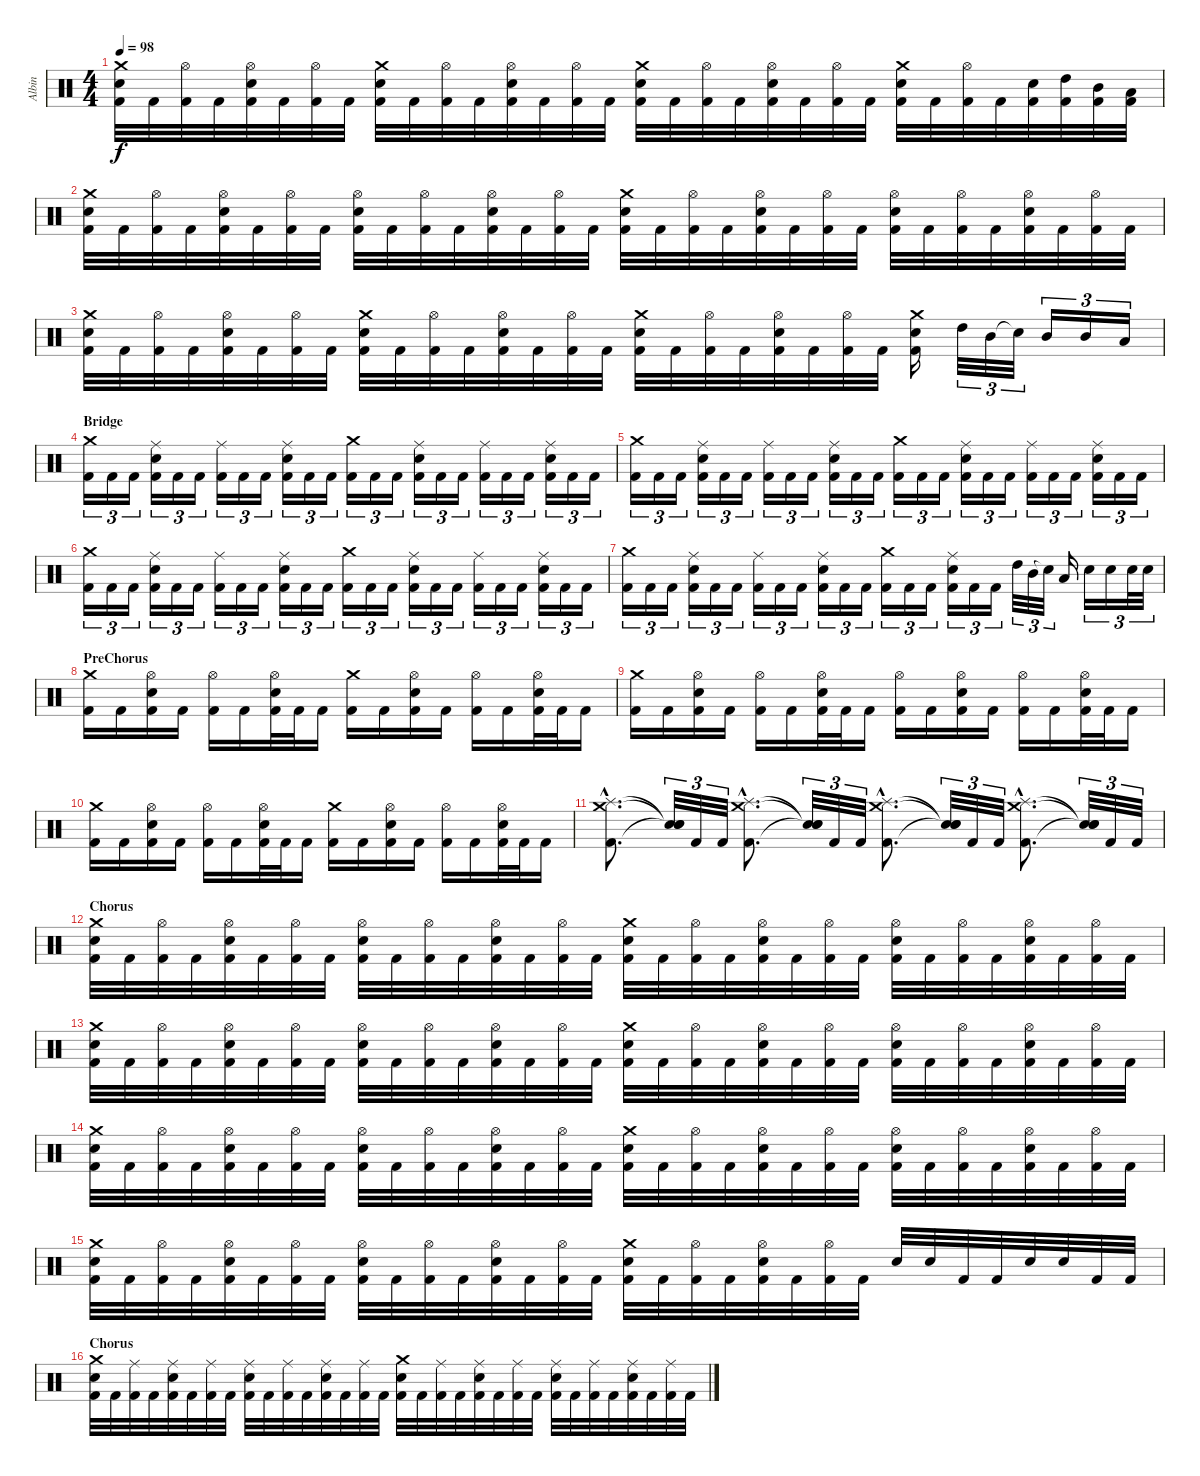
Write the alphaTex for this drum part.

\track ("Albin" "Albin") {instrument percussion}
\staff {score}
\articulation defaults
\ts (4 4)
\tempo 98
\clef neutral
\ks c
("Crash medium (hit)" "Electric Snare (hit)" "Kick (hit) 2").32{dy f} "Kick (hit) 2".32 ("Hi-Hat (open)" "Kick (hit) 2").32 "Kick (hit) 2".32 ("Hi-Hat (open)" "Electric Snare (hit)" "Kick (hit) 2").32 "Kick (hit) 2".32 ("Hi-Hat (open)" "Kick (hit) 2").32 "Kick (hit) 2".32 ("Crash medium (hit)" "Electric Snare (hit)" "Kick (hit) 2").32 "Kick (hit) 2".32 ("Hi-Hat (open)" "Kick (hit) 2").32 "Kick (hit) 2".32 ("Hi-Hat (open)" "Electric Snare (hit)" "Kick (hit) 2").32 "Kick (hit) 2".32 ("Hi-Hat (open)" "Kick (hit) 2").32 "Kick (hit) 2".32 ("Crash medium (hit)" "Electric Snare (hit)" "Kick (hit) 2").32 "Kick (hit) 2".32 ("Hi-Hat (open)" "Kick (hit) 2").32 "Kick (hit) 2".32 ("Hi-Hat (open)" "Electric Snare (hit)" "Kick (hit) 2").32 "Kick (hit) 2".32 ("Hi-Hat (open)" "Kick (hit) 2").32 "Kick (hit) 2".32 ("Crash medium (hit)" "Electric Snare (hit)" "Kick (hit) 2").32 "Kick (hit) 2".32 ("Hi-Hat (open)" "Kick (hit) 2").32 "Kick (hit) 2".32 ("Electric Snare (hit)" "Kick (hit) 2").32 ("High Tom (hit)" "Kick (hit) 2").32 ("Mid Tom (hit)" "Kick (hit) 2").32 ("Low Tom (hit)" "Kick (hit) 2").32 |
("Crash medium (hit)" "Electric Snare (hit)" "Kick (hit) 2").32 "Kick (hit) 2".32 ("Hi-Hat (open)" "Kick (hit) 2").32 "Kick (hit) 2".32 ("Hi-Hat (open)" "Electric Snare (hit)" "Kick (hit) 2").32 "Kick (hit) 2".32 ("Hi-Hat (open)" "Kick (hit) 2").32 "Kick (hit) 2".32 ("Hi-Hat (open)" "Electric Snare (hit)" "Kick (hit) 2").32 "Kick (hit) 2".32 ("Hi-Hat (open)" "Kick (hit) 2").32 "Kick (hit) 2".32 ("Hi-Hat (open)" "Electric Snare (hit)" "Kick (hit) 2").32 "Kick (hit) 2".32 ("Hi-Hat (open)" "Kick (hit) 2").32 "Kick (hit) 2".32 ("Crash medium (hit)" "Electric Snare (hit)" "Kick (hit) 2").32 "Kick (hit) 2".32 ("Hi-Hat (open)" "Kick (hit) 2").32 "Kick (hit) 2".32 ("Hi-Hat (open)" "Electric Snare (hit)" "Kick (hit) 2").32 "Kick (hit) 2".32 ("Hi-Hat (open)" "Kick (hit) 2").32 "Kick (hit) 2".32 ("Hi-Hat (open)" "Electric Snare (hit)" "Kick (hit) 2").32 "Kick (hit) 2".32 ("Hi-Hat (open)" "Kick (hit) 2").32 "Kick (hit) 2".32 ("Hi-Hat (open)" "Electric Snare (hit)" "Kick (hit) 2").32 "Kick (hit) 2".32 ("Hi-Hat (open)" "Kick (hit) 2").32 "Kick (hit) 2".32 |
("Crash medium (hit)" "Electric Snare (hit)" "Kick (hit) 2").32 "Kick (hit) 2".32 ("Hi-Hat (open)" "Kick (hit) 2").32 "Kick (hit) 2".32 ("Hi-Hat (open)" "Electric Snare (hit)" "Kick (hit) 2").32 "Kick (hit) 2".32 ("Hi-Hat (open)" "Kick (hit) 2").32 "Kick (hit) 2".32 ("Crash medium (hit)" "Electric Snare (hit)" "Kick (hit) 2").32 "Kick (hit) 2".32 ("Hi-Hat (open)" "Kick (hit) 2").32 "Kick (hit) 2".32 ("Hi-Hat (open)" "Electric Snare (hit)" "Kick (hit) 2").32 "Kick (hit) 2".32 ("Hi-Hat (open)" "Kick (hit) 2").32 "Kick (hit) 2".32 ("Crash medium (hit)" "Electric Snare (hit)" "Kick (hit) 2").32 "Kick (hit) 2".32 ("Hi-Hat (open)" "Kick (hit) 2").32 "Kick (hit) 2".32 ("Hi-Hat (open)" "Electric Snare (hit)" "Kick (hit) 2").32 "Kick (hit) 2".32 ("Hi-Hat (open)" "Kick (hit) 2").32 "Kick (hit) 2".32 ("Crash medium (hit)" "Electric Snare (hit)" "Kick (hit) 2").16 "High Tom (hit)".32{tu (3 2)} "Mid Tom (hit)".32{tu (3 2)} "Snare (hit)"{t}.32{tu (3 2)} "Mid Tom (hit)".16{tu (3 2)} "Mid Tom (hit)".16{tu (3 2)} "Low Tom (hit)".16{tu (3 2)} |
\section ("" "Bridge")
("Crash medium (hit)" "Kick (hit) 2").16{tu (3 2)} "Kick (hit) 2".16{tu (3 2)} "Kick (hit) 2".16{tu (3 2)} ("Ride (middle)" "Electric Snare (hit)" "Kick (hit) 2").16{tu (3 2)} "Kick (hit) 2".16{tu (3 2)} "Kick (hit) 2".16{tu (3 2)} ("Ride (middle)" "Kick (hit) 2").16{tu (3 2)} "Kick (hit) 2".16{tu (3 2)} "Kick (hit) 2".16{tu (3 2)} ("Ride (middle)" "Electric Snare (hit)" "Kick (hit) 2").16{tu (3 2)} "Kick (hit) 2".16{tu (3 2)} "Kick (hit) 2".16{tu (3 2)} ("Crash medium (hit)" "Kick (hit) 2").16{tu (3 2)} "Kick (hit) 2".16{tu (3 2)} "Kick (hit) 2".16{tu (3 2)} ("Ride (middle)" "Electric Snare (hit)" "Kick (hit) 2").16{tu (3 2)} "Kick (hit) 2".16{tu (3 2)} "Kick (hit) 2".16{tu (3 2)} ("Ride (middle)" "Kick (hit) 2").16{tu (3 2)} "Kick (hit) 2".16{tu (3 2)} "Kick (hit) 2".16{tu (3 2)} ("Ride (middle)" "Electric Snare (hit)" "Kick (hit) 2").16{tu (3 2)} "Kick (hit) 2".16{tu (3 2)} "Kick (hit) 2".16{tu (3 2)} |
("Crash medium (hit)" "Kick (hit) 2").16{tu (3 2)} "Kick (hit) 2".16{tu (3 2)} "Kick (hit) 2".16{tu (3 2)} ("Ride (middle)" "Electric Snare (hit)" "Kick (hit) 2").16{tu (3 2)} "Kick (hit) 2".16{tu (3 2)} "Kick (hit) 2".16{tu (3 2)} ("Ride (middle)" "Kick (hit) 2").16{tu (3 2)} "Kick (hit) 2".16{tu (3 2)} "Kick (hit) 2".16{tu (3 2)} ("Ride (middle)" "Electric Snare (hit)" "Kick (hit) 2").16{tu (3 2)} "Kick (hit) 2".16{tu (3 2)} "Kick (hit) 2".16{tu (3 2)} ("Crash medium (hit)" "Kick (hit) 2").16{tu (3 2)} "Kick (hit) 2".16{tu (3 2)} "Kick (hit) 2".16{tu (3 2)} ("Ride (middle)" "Electric Snare (hit)" "Kick (hit) 2").16{tu (3 2)} "Kick (hit) 2".16{tu (3 2)} "Kick (hit) 2".16{tu (3 2)} ("Ride (middle)" "Kick (hit) 2").16{tu (3 2)} "Kick (hit) 2".16{tu (3 2)} "Kick (hit) 2".16{tu (3 2)} ("Ride (middle)" "Electric Snare (hit)" "Kick (hit) 2").16{tu (3 2)} "Kick (hit) 2".16{tu (3 2)} "Kick (hit) 2".16{tu (3 2)} |
("Crash medium (hit)" "Kick (hit) 2").16{tu (3 2)} "Kick (hit) 2".16{tu (3 2)} "Kick (hit) 2".16{tu (3 2)} ("Ride (middle)" "Electric Snare (hit)" "Kick (hit) 2").16{tu (3 2)} "Kick (hit) 2".16{tu (3 2)} "Kick (hit) 2".16{tu (3 2)} ("Ride (middle)" "Kick (hit) 2").16{tu (3 2)} "Kick (hit) 2".16{tu (3 2)} "Kick (hit) 2".16{tu (3 2)} ("Ride (middle)" "Electric Snare (hit)" "Kick (hit) 2").16{tu (3 2)} "Kick (hit) 2".16{tu (3 2)} "Kick (hit) 2".16{tu (3 2)} ("Crash medium (hit)" "Kick (hit) 2").16{tu (3 2)} "Kick (hit) 2".16{tu (3 2)} "Kick (hit) 2".16{tu (3 2)} ("Ride (middle)" "Electric Snare (hit)" "Kick (hit) 2").16{tu (3 2)} "Kick (hit) 2".16{tu (3 2)} "Kick (hit) 2".16{tu (3 2)} ("Ride (middle)" "Kick (hit) 2").16{tu (3 2)} "Kick (hit) 2".16{tu (3 2)} "Kick (hit) 2".16{tu (3 2)} ("Ride (middle)" "Electric Snare (hit)" "Kick (hit) 2").16{tu (3 2)} "Kick (hit) 2".16{tu (3 2)} "Kick (hit) 2".16{tu (3 2)} |
("Crash medium (hit)" "Kick (hit) 2").16{tu (3 2)} "Kick (hit) 2".16{tu (3 2)} "Kick (hit) 2".16{tu (3 2)} ("Ride (middle)" "Electric Snare (hit)" "Kick (hit) 2").16{tu (3 2)} "Kick (hit) 2".16{tu (3 2)} "Kick (hit) 2".16{tu (3 2)} ("Ride (middle)" "Kick (hit) 2").16{tu (3 2)} "Kick (hit) 2".16{tu (3 2)} "Kick (hit) 2".16{tu (3 2)} ("Ride (middle)" "Electric Snare (hit)" "Kick (hit) 2").16{tu (3 2)} "Kick (hit) 2".16{tu (3 2)} "Kick (hit) 2".16{tu (3 2)} ("Crash medium (hit)" "Kick (hit) 2").16{tu (3 2)} "Kick (hit) 2".16{tu (3 2)} "Kick (hit) 2".16{tu (3 2)} ("Ride (middle)" "Electric Snare (hit)" "Kick (hit) 2").16{tu (3 2)} "Kick (hit) 2".16{tu (3 2)} "Kick (hit) 2".16{tu (3 2)} "High Tom (hit)".32{tu (3 2)} "Mid Tom (hit)".32{tu (3 2)} "Snare (hit)"{t}.32{tu (3 2)} "Low Tom (hit)".16 "Electric Snare (hit)".16{tu (3 2)} "Electric Snare (hit)".16{tu (3 2)} "Electric Snare (hit)".32{tu (3 2)} "Electric Snare (hit)".32{tu (3 2)} |
\section ("" "PreChorus")
("Crash medium (hit)" "Kick (hit) 2").16 "Kick (hit) 2".16 ("Hi-Hat (open)" "Electric Snare (hit)" "Kick (hit) 2").16 "Kick (hit) 2".16 ("Hi-Hat (open)" "Kick (hit) 2").16 "Kick (hit) 2".16 ("Hi-Hat (open)" "Electric Snare (hit)" "Kick (hit) 2").32 "Kick (hit) 2".32 "Kick (hit) 2".16 ("Crash medium (hit)" "Kick (hit) 2").16 "Kick (hit) 2".16 ("Hi-Hat (open)" "Electric Snare (hit)" "Kick (hit) 2").16 "Kick (hit) 2".16 ("Hi-Hat (open)" "Kick (hit) 2").16 "Kick (hit) 2".16 ("Hi-Hat (open)" "Electric Snare (hit)" "Kick (hit) 2").32 "Kick (hit) 2".32 "Kick (hit) 2".16 |
("Crash medium (hit)" "Kick (hit) 2").16 "Kick (hit) 2".16 ("Hi-Hat (open)" "Electric Snare (hit)" "Kick (hit) 2").16 "Kick (hit) 2".16 ("Hi-Hat (open)" "Kick (hit) 2").16 "Kick (hit) 2".16 ("Hi-Hat (open)" "Electric Snare (hit)" "Kick (hit) 2").32 "Kick (hit) 2".32 "Kick (hit) 2".16 ("Hi-Hat (open)" "Kick (hit) 2").16 "Kick (hit) 2".16 ("Hi-Hat (open)" "Electric Snare (hit)" "Kick (hit) 2").16 "Kick (hit) 2".16 ("Hi-Hat (open)" "Kick (hit) 2").16 "Kick (hit) 2".16 ("Hi-Hat (open)" "Electric Snare (hit)" "Kick (hit) 2").32 "Kick (hit) 2".32 "Kick (hit) 2".16 |
("Crash medium (hit)" "Kick (hit) 2").16 "Kick (hit) 2".16 ("Hi-Hat (open)" "Electric Snare (hit)" "Kick (hit) 2").16 "Kick (hit) 2".16 ("Hi-Hat (open)" "Kick (hit) 2").16 "Kick (hit) 2".16 ("Hi-Hat (open)" "Electric Snare (hit)" "Kick (hit) 2").32 "Kick (hit) 2".32 "Kick (hit) 2".16 ("Crash medium (hit)" "Kick (hit) 2").16 "Kick (hit) 2".16 ("Hi-Hat (open)" "Electric Snare (hit)" "Kick (hit) 2").16 "Kick (hit) 2".16 ("Hi-Hat (open)" "Kick (hit) 2").16 "Kick (hit) 2".16 ("Hi-Hat (open)" "Electric Snare (hit)" "Kick (hit) 2").32 "Kick (hit) 2".32 "Kick (hit) 2".16 |
("Crash medium (hit)"{hac} "Splash (hit)"{hac} "Kick (hit) 2"{hac}).8{d} ("Snare (hit)"{t} "Snare (hit)"{t} "Snare (hit)"{t}).32{tu (3 2)} "Kick (hit) 2".32{tu (3 2)} "Kick (hit) 2".32{tu (3 2)} ("Crash medium (hit)"{hac} "Splash (hit)"{hac} "Kick (hit) 2"{hac}).8{d} ("Snare (hit)"{t} "Snare (hit)"{t} "Snare (hit)"{t}).32{tu (3 2)} "Kick (hit) 2".32{tu (3 2)} "Kick (hit) 2".32{tu (3 2)} ("Crash medium (hit)"{hac} "Splash (hit)"{hac} "Kick (hit) 2"{hac}).8{d} ("Snare (hit)"{t} "Snare (hit)"{t} "Snare (hit)"{t}).32{tu (3 2)} "Kick (hit) 2".32{tu (3 2)} "Kick (hit) 2".32{tu (3 2)} ("Crash medium (hit)"{hac} "Splash (hit)"{hac} "Kick (hit) 2"{hac}).8{d} ("Snare (hit)"{t} "Snare (hit)"{t} "Snare (hit)"{t}).32{tu (3 2)} "Kick (hit) 2".32{tu (3 2)} "Kick (hit) 2".32{tu (3 2)} |
\section ("" "Chorus")
("Crash medium (hit)" "Electric Snare (hit)" "Kick (hit) 2").32 "Kick (hit) 2".32 ("Hi-Hat (open)" "Kick (hit) 2").32 "Kick (hit) 2".32 ("Hi-Hat (open)" "Electric Snare (hit)" "Kick (hit) 2").32 "Kick (hit) 2".32 ("Hi-Hat (open)" "Kick (hit) 2").32 "Kick (hit) 2".32 ("Hi-Hat (open)" "Electric Snare (hit)" "Kick (hit) 2").32 "Kick (hit) 2".32 ("Hi-Hat (open)" "Kick (hit) 2").32 "Kick (hit) 2".32 ("Hi-Hat (open)" "Electric Snare (hit)" "Kick (hit) 2").32 "Kick (hit) 2".32 ("Hi-Hat (open)" "Kick (hit) 2").32 "Kick (hit) 2".32 ("Crash medium (hit)" "Electric Snare (hit)" "Kick (hit) 2").32 "Kick (hit) 2".32 ("Hi-Hat (open)" "Kick (hit) 2").32 "Kick (hit) 2".32 ("Hi-Hat (open)" "Electric Snare (hit)" "Kick (hit) 2").32 "Kick (hit) 2".32 ("Hi-Hat (open)" "Kick (hit) 2").32 "Kick (hit) 2".32 ("Hi-Hat (open)" "Electric Snare (hit)" "Kick (hit) 2").32 "Kick (hit) 2".32 ("Hi-Hat (open)" "Kick (hit) 2").32 "Kick (hit) 2".32 ("Hi-Hat (open)" "Electric Snare (hit)" "Kick (hit) 2").32 "Kick (hit) 2".32 ("Hi-Hat (open)" "Kick (hit) 2").32 "Kick (hit) 2".32 |
("Crash medium (hit)" "Electric Snare (hit)" "Kick (hit) 2").32 "Kick (hit) 2".32 ("Hi-Hat (open)" "Kick (hit) 2").32 "Kick (hit) 2".32 ("Hi-Hat (open)" "Electric Snare (hit)" "Kick (hit) 2").32 "Kick (hit) 2".32 ("Hi-Hat (open)" "Kick (hit) 2").32 "Kick (hit) 2".32 ("Hi-Hat (open)" "Electric Snare (hit)" "Kick (hit) 2").32 "Kick (hit) 2".32 ("Hi-Hat (open)" "Kick (hit) 2").32 "Kick (hit) 2".32 ("Hi-Hat (open)" "Electric Snare (hit)" "Kick (hit) 2").32 "Kick (hit) 2".32 ("Hi-Hat (open)" "Kick (hit) 2").32 "Kick (hit) 2".32 ("Crash medium (hit)" "Electric Snare (hit)" "Kick (hit) 2").32 "Kick (hit) 2".32 ("Hi-Hat (open)" "Kick (hit) 2").32 "Kick (hit) 2".32 ("Hi-Hat (open)" "Electric Snare (hit)" "Kick (hit) 2").32 "Kick (hit) 2".32 ("Hi-Hat (open)" "Kick (hit) 2").32 "Kick (hit) 2".32 ("Hi-Hat (open)" "Electric Snare (hit)" "Kick (hit) 2").32 "Kick (hit) 2".32 ("Hi-Hat (open)" "Kick (hit) 2").32 "Kick (hit) 2".32 ("Hi-Hat (open)" "Electric Snare (hit)" "Kick (hit) 2").32 "Kick (hit) 2".32 ("Hi-Hat (open)" "Kick (hit) 2").32 "Kick (hit) 2".32 |
("Crash medium (hit)" "Electric Snare (hit)" "Kick (hit) 2").32 "Kick (hit) 2".32 ("Hi-Hat (open)" "Kick (hit) 2").32 "Kick (hit) 2".32 ("Hi-Hat (open)" "Electric Snare (hit)" "Kick (hit) 2").32 "Kick (hit) 2".32 ("Hi-Hat (open)" "Kick (hit) 2").32 "Kick (hit) 2".32 ("Hi-Hat (open)" "Electric Snare (hit)" "Kick (hit) 2").32 "Kick (hit) 2".32 ("Hi-Hat (open)" "Kick (hit) 2").32 "Kick (hit) 2".32 ("Hi-Hat (open)" "Electric Snare (hit)" "Kick (hit) 2").32 "Kick (hit) 2".32 ("Hi-Hat (open)" "Kick (hit) 2").32 "Kick (hit) 2".32 ("Crash medium (hit)" "Electric Snare (hit)" "Kick (hit) 2").32 "Kick (hit) 2".32 ("Hi-Hat (open)" "Kick (hit) 2").32 "Kick (hit) 2".32 ("Hi-Hat (open)" "Electric Snare (hit)" "Kick (hit) 2").32 "Kick (hit) 2".32 ("Hi-Hat (open)" "Kick (hit) 2").32 "Kick (hit) 2".32 ("Hi-Hat (open)" "Electric Snare (hit)" "Kick (hit) 2").32 "Kick (hit) 2".32 ("Hi-Hat (open)" "Kick (hit) 2").32 "Kick (hit) 2".32 ("Hi-Hat (open)" "Electric Snare (hit)" "Kick (hit) 2").32 "Kick (hit) 2".32 ("Hi-Hat (open)" "Kick (hit) 2").32 "Kick (hit) 2".32 |
("Crash medium (hit)" "Electric Snare (hit)" "Kick (hit) 2").32 "Kick (hit) 2".32 ("Hi-Hat (open)" "Kick (hit) 2").32 "Kick (hit) 2".32 ("Hi-Hat (open)" "Electric Snare (hit)" "Kick (hit) 2").32 "Kick (hit) 2".32 ("Hi-Hat (open)" "Kick (hit) 2").32 "Kick (hit) 2".32 ("Hi-Hat (open)" "Electric Snare (hit)" "Kick (hit) 2").32 "Kick (hit) 2".32 ("Hi-Hat (open)" "Kick (hit) 2").32 "Kick (hit) 2".32 ("Hi-Hat (open)" "Electric Snare (hit)" "Kick (hit) 2").32 "Kick (hit) 2".32 ("Hi-Hat (open)" "Kick (hit) 2").32 "Kick (hit) 2".32 ("Crash medium (hit)" "Electric Snare (hit)" "Kick (hit) 2").32 "Kick (hit) 2".32 ("Hi-Hat (open)" "Kick (hit) 2").32 "Kick (hit) 2".32 ("Hi-Hat (open)" "Electric Snare (hit)" "Kick (hit) 2").32 "Kick (hit) 2".32 ("Hi-Hat (open)" "Kick (hit) 2").32 "Kick (hit) 2".32 "Electric Snare (hit)".32 "Electric Snare (hit)".32 "Kick (hit) 2".32 "Kick (hit) 2".32 "Electric Snare (hit)".32 "Electric Snare (hit)".32 "Kick (hit) 2".32 "Kick (hit) 2".32 |
\section ("" "Chorus")
("Crash medium (hit)" "Electric Snare (hit)" "Kick (hit) 2").32 "Kick (hit) 2".32 ("Ride (middle)" "Kick (hit) 2").32 "Kick (hit) 2".32 ("Ride (middle)" "Electric Snare (hit)" "Kick (hit) 2").32 "Kick (hit) 2".32 ("Ride (middle)" "Kick (hit) 2").32 "Kick (hit) 2".32 ("Ride (middle)" "Electric Snare (hit)" "Kick (hit) 2").32 "Kick (hit) 2".32 ("Ride (middle)" "Kick (hit) 2").32 "Kick (hit) 2".32 ("Ride (middle)" "Electric Snare (hit)" "Kick (hit) 2").32 "Kick (hit) 2".32 ("Ride (middle)" "Kick (hit) 2").32 "Kick (hit) 2".32 ("Crash medium (hit)" "Electric Snare (hit)" "Kick (hit) 2").32 "Kick (hit) 2".32 ("Ride (middle)" "Kick (hit) 2").32 "Kick (hit) 2".32 ("Ride (middle)" "Electric Snare (hit)" "Kick (hit) 2").32 "Kick (hit) 2".32 ("Ride (middle)" "Kick (hit) 2").32 "Kick (hit) 2".32 ("Ride (middle)" "Electric Snare (hit)" "Kick (hit) 2").32 "Kick (hit) 2".32 ("Ride (middle)" "Kick (hit) 2").32 "Kick (hit) 2".32 ("Ride (middle)" "Electric Snare (hit)" "Kick (hit) 2").32 "Kick (hit) 2".32 ("Ride (middle)" "Kick (hit) 2").32 "Kick (hit) 2".32
